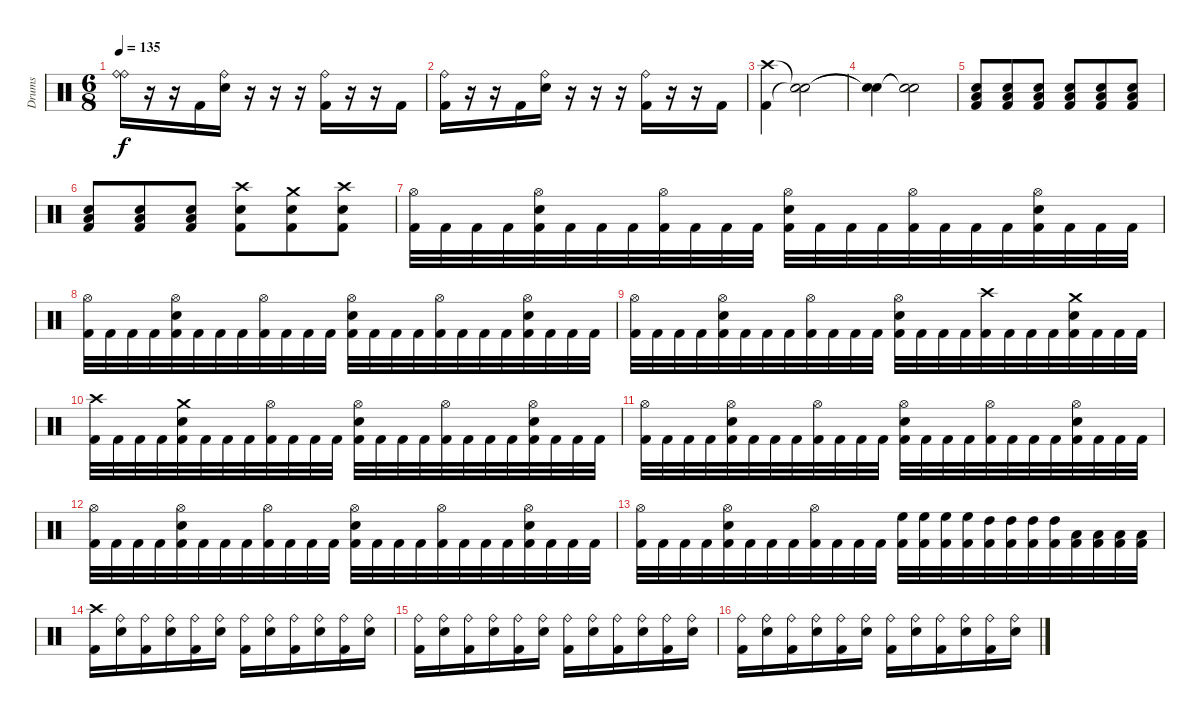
\track ("Drums" "Drums") {instrument percussion}
\staff {score}
\articulation defaults
\ts (6 8)
\tempo 135
\clef neutral
\ks c
("Ride (bell)" "Ride (bell)").16{dy f} r.16 r.16 "Kick (hit) 2".16 ("Electric Snare (hit)" "Ride (bell)").16 r.16 r.16 r.16 ("Kick (hit) 2" "Ride (bell)").16 r.16 r.16 "Kick (hit) 2".16 |
("Kick (hit) 2" "Ride (bell)").16 r.16 r.16 "Kick (hit) 2".16 ("Electric Snare (hit)" "Ride (bell)").16 r.16 r.16 r.16 ("Kick (hit) 2" "Ride (bell)").16 r.16 r.16 "Kick (hit) 2".16 |
("Crash high (hit)" "Kick (hit) 2").4 ("Snare (hit)"{t} "Snare (hit)"{t}).2 |
("Snare (hit)"{t} "Snare (hit)"{t}).4 ("Snare (hit)"{t} "Snare (hit)"{t}).2 |
("Low Floor Tom (hit)" "Electric Snare (hit)" "Kick (hit) 2").8{volume 2} ("Low Floor Tom (hit)" "Electric Snare (hit)" "Kick (hit) 2").8{volume 4} ("Low Floor Tom (hit)" "Electric Snare (hit)" "Kick (hit) 2").8{volume 6} ("Low Floor Tom (hit)" "Electric Snare (hit)" "Kick (hit) 2").8{volume 8} ("Low Floor Tom (hit)" "Electric Snare (hit)" "Kick (hit) 2").8{volume 10} ("Low Floor Tom (hit)" "Electric Snare (hit)" "Kick (hit) 2").8{volume 12} |
("Low Floor Tom (hit)" "Electric Snare (hit)" "Kick (hit) 2").8{volume 14} ("Low Floor Tom (hit)" "Electric Snare (hit)" "Kick (hit) 2").8{volume 16} ("Low Floor Tom (hit)" "Electric Snare (hit)" "Kick (hit) 2").8 ("Crash high (hit)" "Electric Snare (hit)" "Kick (hit) 2").8 ("Crash medium (hit)" "Electric Snare (hit)" "Kick (hit) 2").8 ("Crash high (hit)" "Electric Snare (hit)" "Kick (hit) 2").8 |
("Hi-Hat (open)" "Kick (hit) 2").32 "Kick (hit) 2".32 "Kick (hit) 2".32 "Kick (hit) 2".32 ("Hi-Hat (open)" "Electric Snare (hit)" "Kick (hit) 2").32 "Kick (hit) 2".32 "Kick (hit) 2".32 "Kick (hit) 2".32 ("Hi-Hat (open)" "Kick (hit) 2").32 "Kick (hit) 2".32 "Kick (hit) 2".32 "Kick (hit) 2".32 ("Hi-Hat (open)" "Electric Snare (hit)" "Kick (hit) 2").32 "Kick (hit) 2".32 "Kick (hit) 2".32 "Kick (hit) 2".32 ("Hi-Hat (open)" "Kick (hit) 2").32 "Kick (hit) 2".32 "Kick (hit) 2".32 "Kick (hit) 2".32 ("Hi-Hat (open)" "Electric Snare (hit)" "Kick (hit) 2").32 "Kick (hit) 2".32 "Kick (hit) 2".32 "Kick (hit) 2".32 |
("Hi-Hat (open)" "Kick (hit) 2").32 "Kick (hit) 2".32 "Kick (hit) 2".32 "Kick (hit) 2".32 ("Hi-Hat (open)" "Electric Snare (hit)" "Kick (hit) 2").32 "Kick (hit) 2".32 "Kick (hit) 2".32 "Kick (hit) 2".32 ("Hi-Hat (open)" "Kick (hit) 2").32 "Kick (hit) 2".32 "Kick (hit) 2".32 "Kick (hit) 2".32 ("Hi-Hat (open)" "Electric Snare (hit)" "Kick (hit) 2").32 "Kick (hit) 2".32 "Kick (hit) 2".32 "Kick (hit) 2".32 ("Hi-Hat (open)" "Kick (hit) 2").32 "Kick (hit) 2".32 "Kick (hit) 2".32 "Kick (hit) 2".32 ("Hi-Hat (open)" "Electric Snare (hit)" "Kick (hit) 2").32 "Kick (hit) 2".32 "Kick (hit) 2".32 "Kick (hit) 2".32 |
("Hi-Hat (open)" "Kick (hit) 2").32 "Kick (hit) 2".32 "Kick (hit) 2".32 "Kick (hit) 2".32 ("Hi-Hat (open)" "Electric Snare (hit)" "Kick (hit) 2").32 "Kick (hit) 2".32 "Kick (hit) 2".32 "Kick (hit) 2".32 ("Hi-Hat (open)" "Kick (hit) 2").32 "Kick (hit) 2".32 "Kick (hit) 2".32 "Kick (hit) 2".32 ("Hi-Hat (open)" "Electric Snare (hit)" "Kick (hit) 2").32 "Kick (hit) 2".32 "Kick (hit) 2".32 "Kick (hit) 2".32 ("Crash high (hit)" "Kick (hit) 2").32 "Kick (hit) 2".32 "Kick (hit) 2".32 "Kick (hit) 2".32 ("Crash medium (hit)" "Electric Snare (hit)" "Kick (hit) 2").32 "Kick (hit) 2".32 "Kick (hit) 2".32 "Kick (hit) 2".32 |
("Crash high (hit)" "Kick (hit) 2").32 "Kick (hit) 2".32 "Kick (hit) 2".32 "Kick (hit) 2".32 ("Crash medium (hit)" "Electric Snare (hit)" "Kick (hit) 2").32 "Kick (hit) 2".32 "Kick (hit) 2".32 "Kick (hit) 2".32 ("Hi-Hat (open)" "Kick (hit) 2").32 "Kick (hit) 2".32 "Kick (hit) 2".32 "Kick (hit) 2".32 ("Hi-Hat (open)" "Electric Snare (hit)" "Kick (hit) 2").32 "Kick (hit) 2".32 "Kick (hit) 2".32 "Kick (hit) 2".32 ("Hi-Hat (open)" "Kick (hit) 2").32 "Kick (hit) 2".32 "Kick (hit) 2".32 "Kick (hit) 2".32 ("Hi-Hat (open)" "Electric Snare (hit)" "Kick (hit) 2").32 "Kick (hit) 2".32 "Kick (hit) 2".32 "Kick (hit) 2".32 |
("Hi-Hat (open)" "Kick (hit) 2").32 "Kick (hit) 2".32 "Kick (hit) 2".32 "Kick (hit) 2".32 ("Hi-Hat (open)" "Electric Snare (hit)" "Kick (hit) 2").32 "Kick (hit) 2".32 "Kick (hit) 2".32 "Kick (hit) 2".32 ("Hi-Hat (open)" "Kick (hit) 2").32 "Kick (hit) 2".32 "Kick (hit) 2".32 "Kick (hit) 2".32 ("Hi-Hat (open)" "Electric Snare (hit)" "Kick (hit) 2").32 "Kick (hit) 2".32 "Kick (hit) 2".32 "Kick (hit) 2".32 ("Hi-Hat (open)" "Kick (hit) 2").32 "Kick (hit) 2".32 "Kick (hit) 2".32 "Kick (hit) 2".32 ("Hi-Hat (open)" "Electric Snare (hit)" "Kick (hit) 2").32 "Kick (hit) 2".32 "Kick (hit) 2".32 "Kick (hit) 2".32 |
("Hi-Hat (open)" "Kick (hit) 2").32 "Kick (hit) 2".32 "Kick (hit) 2".32 "Kick (hit) 2".32 ("Hi-Hat (open)" "Electric Snare (hit)" "Kick (hit) 2").32 "Kick (hit) 2".32 "Kick (hit) 2".32 "Kick (hit) 2".32 ("Hi-Hat (open)" "Kick (hit) 2").32 "Kick (hit) 2".32 "Kick (hit) 2".32 "Kick (hit) 2".32 ("Hi-Hat (open)" "Electric Snare (hit)" "Kick (hit) 2").32 "Kick (hit) 2".32 "Kick (hit) 2".32 "Kick (hit) 2".32 ("Hi-Hat (open)" "Kick (hit) 2").32 "Kick (hit) 2".32 "Kick (hit) 2".32 "Kick (hit) 2".32 ("Hi-Hat (open)" "Electric Snare (hit)" "Kick (hit) 2").32 "Kick (hit) 2".32 "Kick (hit) 2".32 "Kick (hit) 2".32 |
("Hi-Hat (open)" "Kick (hit) 2").32 "Kick (hit) 2".32 "Kick (hit) 2".32 "Kick (hit) 2".32 ("Hi-Hat (open)" "Electric Snare (hit)" "Kick (hit) 2").32 "Kick (hit) 2".32 "Kick (hit) 2".32 "Kick (hit) 2".32 ("Hi-Hat (open)" "Kick (hit) 2").32 "Kick (hit) 2".32 "Kick (hit) 2".32 "Kick (hit) 2".32 ("Kick (hit) 2" "High Floor Tom (hit)").32 ("Kick (hit) 2" "High Floor Tom (hit)").32 ("Kick (hit) 2" "High Floor Tom (hit)").32 ("Kick (hit) 2" "High Floor Tom (hit)").32 ("Kick (hit) 2" "High Tom (hit)").32 ("Kick (hit) 2" "High Tom (hit)").32 ("Kick (hit) 2" "High Tom (hit)").32 ("Kick (hit) 2" "High Tom (hit)").32 ("Kick (hit) 2" "Low Tom (hit)").32 ("Kick (hit) 2" "Low Tom (hit)").32 ("Kick (hit) 2" "Low Tom (hit)").32 ("Kick (hit) 2" "Low Tom (hit)").32 |
("Crash high (hit)" "Kick (hit) 2").16 ("Ride (bell)" "Electric Snare (hit)").16 ("Ride (bell)" "Kick (hit) 2").16 ("Ride (bell)" "Electric Snare (hit)").16 ("Ride (bell)" "Kick (hit) 2").16 ("Ride (bell)" "Electric Snare (hit)").16 ("Ride (bell)" "Kick (hit) 2").16 ("Ride (bell)" "Electric Snare (hit)").16 ("Ride (bell)" "Kick (hit) 2").16 ("Ride (bell)" "Electric Snare (hit)").16 ("Ride (bell)" "Kick (hit) 2").16 ("Ride (bell)" "Electric Snare (hit)").16 |
("Ride (bell)" "Kick (hit) 2").16 ("Ride (bell)" "Electric Snare (hit)").16 ("Ride (bell)" "Kick (hit) 2").16 ("Ride (bell)" "Electric Snare (hit)").16 ("Ride (bell)" "Kick (hit) 2").16 ("Ride (bell)" "Electric Snare (hit)").16 ("Ride (bell)" "Kick (hit) 2").16 ("Ride (bell)" "Electric Snare (hit)").16 ("Ride (bell)" "Kick (hit) 2").16 ("Ride (bell)" "Electric Snare (hit)").16 ("Ride (bell)" "Kick (hit) 2").16 ("Ride (bell)" "Electric Snare (hit)").16 |
("Ride (bell)" "Kick (hit) 2").16 ("Ride (bell)" "Electric Snare (hit)").16 ("Ride (bell)" "Kick (hit) 2").16 ("Ride (bell)" "Electric Snare (hit)").16 ("Ride (bell)" "Kick (hit) 2").16 ("Ride (bell)" "Electric Snare (hit)").16 ("Ride (bell)" "Kick (hit) 2").16 ("Ride (bell)" "Electric Snare (hit)").16 ("Ride (bell)" "Kick (hit) 2").16 ("Ride (bell)" "Electric Snare (hit)").16 ("Ride (bell)" "Kick (hit) 2").16 ("Ride (bell)" "Electric Snare (hit)").16
